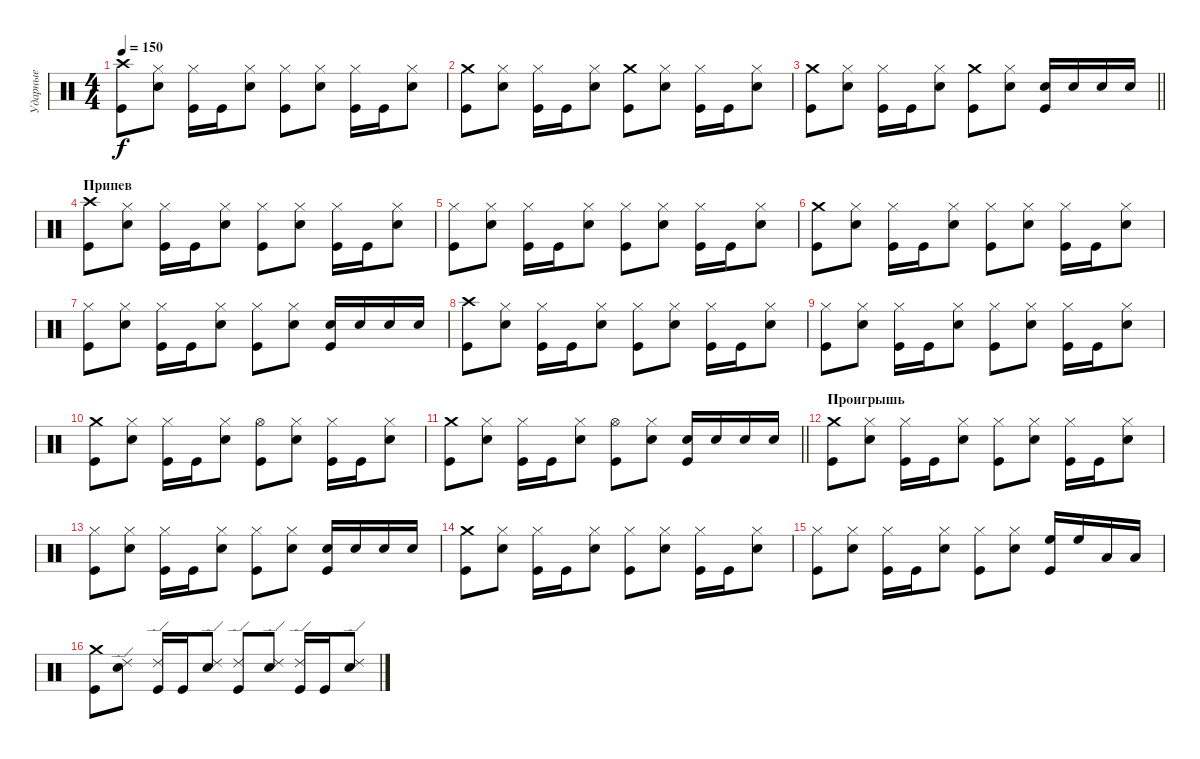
\track ("Ударные" "Ударные") {instrument percussion}
\staff {score}
\articulation defaults
\ts (4 4)
\tempo 150
\clef neutral
\ks c
("Kick (hit)" "Crash high (hit)").8{dy f} ("Snare (hit) 2" "Hi-Hat (closed)").8 ("Kick (hit)" "Hi-Hat (closed)").16 "Kick (hit)".16 ("Snare (hit) 2" "Hi-Hat (closed)").8 ("Kick (hit)" "Hi-Hat (closed)").8 ("Snare (hit) 2" "Hi-Hat (closed)").8 ("Kick (hit)" "Hi-Hat (closed)").16 "Kick (hit)".16 ("Snare (hit) 2" "Hi-Hat (closed)").8 |
("Kick (hit)" "Crash medium (hit)").8 ("Snare (hit) 2" "Hi-Hat (closed)").8 ("Kick (hit)" "Hi-Hat (closed)").16 "Kick (hit)".16 ("Snare (hit) 2" "Hi-Hat (closed)").8 ("Kick (hit)" "Crash medium (hit)").8 ("Snare (hit) 2" "Hi-Hat (closed)").8 ("Kick (hit)" "Hi-Hat (closed)").16 "Kick (hit)".16 ("Snare (hit) 2" "Hi-Hat (closed)").8 |
\barLineRight lightlight
("Kick (hit)" "Crash medium (hit)").8 ("Snare (hit) 2" "Hi-Hat (closed)").8 ("Kick (hit)" "Hi-Hat (closed)").16 "Kick (hit)".16 ("Snare (hit) 2" "Hi-Hat (closed)").8 ("Kick (hit)" "Crash medium (hit)").8 ("Snare (hit) 2" "Hi-Hat (closed)").8 ("Snare (hit) 2" "Kick (hit)").16 "Snare (hit) 2".16 "Snare (hit) 2".16 "Snare (hit) 2".16 |
\section ("" "Припев")
("Kick (hit)" "Crash high (hit)").8 ("Snare (hit) 2" "Hi-Hat (closed)").8 ("Kick (hit)" "Hi-Hat (closed)").16 "Kick (hit)".16 ("Snare (hit) 2" "Hi-Hat (closed)").8 ("Kick (hit)" "Hi-Hat (closed)").8 ("Snare (hit) 2" "Hi-Hat (closed)").8 ("Kick (hit)" "Hi-Hat (closed)").16 "Kick (hit)".16 ("Snare (hit) 2" "Hi-Hat (closed)").8 |
("Kick (hit)" "Hi-Hat (closed)").8 ("Snare (hit) 2" "Hi-Hat (closed)").8 ("Kick (hit)" "Hi-Hat (closed)").16 "Kick (hit)".16 ("Snare (hit) 2" "Hi-Hat (closed)").8 ("Kick (hit)" "Hi-Hat (closed)").8 ("Snare (hit) 2" "Hi-Hat (closed)").8 ("Kick (hit)" "Hi-Hat (closed)").16 "Kick (hit)".16 ("Snare (hit) 2" "Hi-Hat (closed)").8 |
("Kick (hit)" "Crash medium (hit)").8 ("Snare (hit) 2" "Hi-Hat (closed)").8 ("Kick (hit)" "Hi-Hat (closed)").16 "Kick (hit)".16 ("Snare (hit) 2" "Hi-Hat (closed)").8 ("Kick (hit)" "Hi-Hat (closed)").8 ("Snare (hit) 2" "Hi-Hat (closed)").8 ("Kick (hit)" "Hi-Hat (closed)").16 "Kick (hit)".16 ("Snare (hit) 2" "Hi-Hat (closed)").8 |
("Kick (hit)" "Hi-Hat (closed)").8 ("Snare (hit) 2" "Hi-Hat (closed)").8 ("Kick (hit)" "Hi-Hat (closed)").16 "Kick (hit)".16 ("Snare (hit) 2" "Hi-Hat (closed)").8 ("Kick (hit)" "Hi-Hat (closed)").8 ("Snare (hit) 2" "Hi-Hat (closed)").8 ("Snare (hit) 2" "Kick (hit)").16 "Snare (hit) 2".16 "Snare (hit) 2".16 "Snare (hit) 2".16 |
("Kick (hit)" "Crash high (hit)").8 ("Snare (hit) 2" "Hi-Hat (closed)").8 ("Kick (hit)" "Hi-Hat (closed)").16 "Kick (hit)".16 ("Snare (hit) 2" "Hi-Hat (closed)").8 ("Kick (hit)" "Hi-Hat (closed)").8 ("Snare (hit) 2" "Hi-Hat (closed)").8 ("Kick (hit)" "Hi-Hat (closed)").16 "Kick (hit)".16 ("Snare (hit) 2" "Hi-Hat (closed)").8 |
("Kick (hit)" "Hi-Hat (closed)").8 ("Snare (hit) 2" "Hi-Hat (closed)").8 ("Kick (hit)" "Hi-Hat (closed)").16 "Kick (hit)".16 ("Snare (hit) 2" "Hi-Hat (closed)").8 ("Kick (hit)" "Hi-Hat (closed)").8 ("Snare (hit) 2" "Hi-Hat (closed)").8 ("Kick (hit)" "Hi-Hat (closed)").16 "Kick (hit)".16 ("Snare (hit) 2" "Hi-Hat (closed)").8 |
("Kick (hit)" "Crash medium (hit)").8 ("Snare (hit) 2" "Hi-Hat (closed)").8 ("Kick (hit)" "Hi-Hat (closed)").16 "Kick (hit)".16 ("Snare (hit) 2" "Hi-Hat (closed)").8 ("Kick (hit)" "Hi-Hat (open)").8 ("Snare (hit) 2" "Hi-Hat (closed)").8 ("Kick (hit)" "Hi-Hat (closed)").16 "Kick (hit)".16 ("Snare (hit) 2" "Hi-Hat (closed)").8 |
\barLineRight lightlight
("Kick (hit)" "Crash medium (hit)").8 ("Snare (hit) 2" "Hi-Hat (closed)").8 ("Kick (hit)" "Hi-Hat (closed)").16 "Kick (hit)".16 ("Snare (hit) 2" "Hi-Hat (closed)").8 ("Kick (hit)" "Hi-Hat (open)").8 ("Snare (hit) 2" "Hi-Hat (closed)").8 ("Snare (hit) 2" "Kick (hit)").16 "Snare (hit) 2".16 "Snare (hit) 2".16 "Snare (hit) 2".16 |
\section ("" "Проигрышь")
("Kick (hit)" "Crash medium (hit)").8 ("Snare (hit) 2" "Hi-Hat (closed)").8 ("Kick (hit)" "Hi-Hat (closed)").16 "Kick (hit)".16 ("Snare (hit) 2" "Hi-Hat (closed)").8 ("Kick (hit)" "Hi-Hat (closed)").8 ("Snare (hit) 2" "Hi-Hat (closed)").8 ("Kick (hit)" "Hi-Hat (closed)").16 "Kick (hit)".16 ("Snare (hit) 2" "Hi-Hat (closed)").8 |
("Kick (hit)" "Hi-Hat (closed)").8 ("Snare (hit) 2" "Hi-Hat (closed)").8 ("Kick (hit)" "Hi-Hat (closed)").16 "Kick (hit)".16 ("Snare (hit) 2" "Hi-Hat (closed)").8 ("Kick (hit)" "Hi-Hat (closed)").8 ("Snare (hit) 2" "Hi-Hat (closed)").8 ("Snare (hit) 2" "Kick (hit)").16 "Snare (hit) 2".16 "Snare (hit) 2".16 "Snare (hit) 2".16 |
("Kick (hit)" "Crash medium (hit)").8 ("Snare (hit) 2" "Hi-Hat (closed)").8 ("Kick (hit)" "Hi-Hat (closed)").16 "Kick (hit)".16 ("Snare (hit) 2" "Hi-Hat (closed)").8 ("Kick (hit)" "Hi-Hat (closed)").8 ("Snare (hit) 2" "Hi-Hat (closed)").8 ("Kick (hit)" "Hi-Hat (closed)").16 "Kick (hit)".16 ("Snare (hit) 2" "Hi-Hat (closed)").8 |
("Kick (hit)" "Hi-Hat (closed)").8 ("Snare (hit) 2" "Hi-Hat (closed)").8 ("Kick (hit)" "Hi-Hat (closed)").16 "Kick (hit)".16 ("Snare (hit) 2" "Hi-Hat (closed)").8 ("Kick (hit)" "Hi-Hat (closed)").8 ("Snare (hit) 2" "Hi-Hat (closed)").8 ("High Floor Tom (hit)" "Kick (hit)").16 "High Floor Tom (hit)".16 "Low Tom (hit)".16 "Low Tom (hit)".16 |
("Kick (hit)" "Crash medium (hit)").8 ("Snare (hit) 2" "Ride (edge) 2").8 ("Kick (hit)" "Ride (edge) 2").16 "Kick (hit)".16 ("Snare (hit) 2" "Ride (edge) 2").8 ("Kick (hit)" "Ride (edge) 2").8 ("Snare (hit) 2" "Ride (edge) 2").8 ("Kick (hit)" "Ride (edge) 2").16 "Kick (hit)".16 ("Snare (hit) 2" "Ride (edge) 2").8
